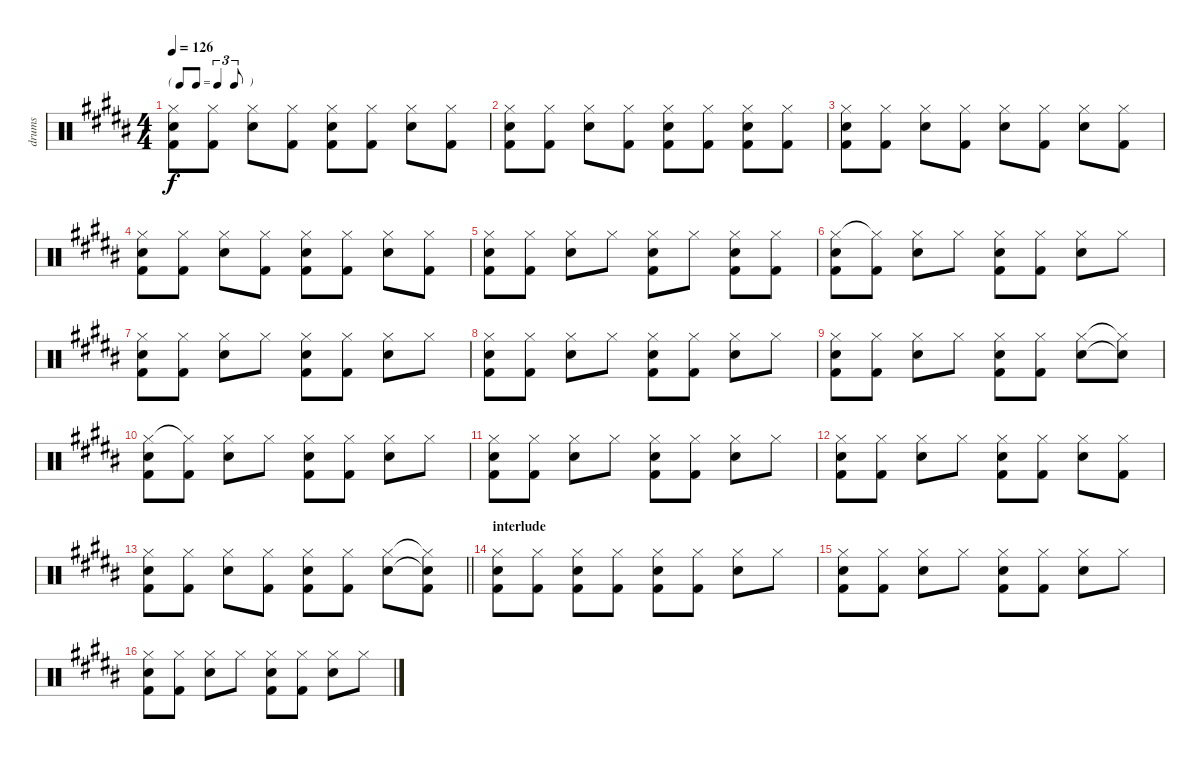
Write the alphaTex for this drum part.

\track ("drums" "drums") {instrument percussion}
\staff {score}
\articulation defaults
\ts (4 4)
\tf triplet8th
\tempo 126
\clef neutral
\ks b
("Hi-Hat (closed)" "Electric Snare (hit)" "Kick (hit) 2").8{dy f} ("Hi-Hat (closed)" "Kick (hit) 2").8 ("Hi-Hat (closed)" "Electric Snare (hit)").8 ("Hi-Hat (closed)" "Kick (hit) 2").8 ("Hi-Hat (closed)" "Electric Snare (hit)" "Kick (hit) 2").8 ("Hi-Hat (closed)" "Kick (hit) 2").8 ("Hi-Hat (closed)" "Electric Snare (hit)").8 ("Hi-Hat (closed)" "Kick (hit) 2").8 |
("Hi-Hat (closed)" "Electric Snare (hit)" "Kick (hit) 2").8{volume 11} ("Hi-Hat (closed)" "Kick (hit) 2").8 ("Hi-Hat (closed)" "Electric Snare (hit)").8 ("Hi-Hat (closed)" "Kick (hit) 2").8 ("Hi-Hat (closed)" "Electric Snare (hit)" "Kick (hit) 2").8 ("Hi-Hat (closed)" "Kick (hit) 2").8 ("Hi-Hat (closed)" "Electric Snare (hit)" "Kick (hit) 2").8 ("Hi-Hat (closed)" "Kick (hit) 2").8 |
("Hi-Hat (closed)" "Electric Snare (hit)" "Kick (hit) 2").8 ("Hi-Hat (closed)" "Kick (hit) 2").8 ("Hi-Hat (closed)" "Electric Snare (hit)").8 ("Hi-Hat (closed)" "Kick (hit) 2").8 ("Hi-Hat (closed)" "Electric Snare (hit)").8 ("Hi-Hat (closed)" "Kick (hit) 2").8 ("Hi-Hat (closed)" "Electric Snare (hit)").8 ("Hi-Hat (closed)" "Kick (hit) 2").8 |
("Hi-Hat (closed)" "Electric Snare (hit)" "Kick (hit) 2").8 ("Hi-Hat (closed)" "Kick (hit) 2").8 ("Hi-Hat (closed)" "Electric Snare (hit)").8 ("Hi-Hat (closed)" "Kick (hit) 2").8 ("Hi-Hat (closed)" "Electric Snare (hit)" "Kick (hit) 2").8 ("Hi-Hat (closed)" "Kick (hit) 2").8 ("Hi-Hat (closed)" "Electric Snare (hit)").8 ("Hi-Hat (closed)" "Kick (hit) 2").8 |
("Hi-Hat (closed)" "Electric Snare (hit)" "Kick (hit) 2").8 ("Hi-Hat (closed)" "Kick (hit) 2").8 ("Hi-Hat (closed)" "Electric Snare (hit)").8 "Hi-Hat (closed)".8 ("Hi-Hat (closed)" "Electric Snare (hit)" "Kick (hit) 2").8 "Hi-Hat (closed)".8 ("Hi-Hat (closed)" "Electric Snare (hit)" "Kick (hit) 2").8 ("Hi-Hat (closed)" "Kick (hit) 2").8 |
("Hi-Hat (closed)" "Electric Snare (hit)" "Kick (hit) 2").8 ("Hi-Hat (closed)"{t} "Kick (hit) 2").8 ("Hi-Hat (closed)" "Electric Snare (hit)").8 "Hi-Hat (closed)".8 ("Hi-Hat (closed)" "Electric Snare (hit)" "Kick (hit) 2").8 ("Hi-Hat (closed)" "Kick (hit) 2").8 ("Hi-Hat (closed)" "Electric Snare (hit)").8 "Hi-Hat (closed)".8 |
("Hi-Hat (closed)" "Electric Snare (hit)" "Kick (hit) 2").8 ("Hi-Hat (closed)" "Kick (hit) 2").8 ("Hi-Hat (closed)" "Electric Snare (hit)").8 "Hi-Hat (closed)".8 ("Hi-Hat (closed)" "Electric Snare (hit)" "Kick (hit) 2").8 ("Hi-Hat (closed)" "Kick (hit) 2").8 ("Hi-Hat (closed)" "Electric Snare (hit)").8 "Hi-Hat (closed)".8 |
("Hi-Hat (closed)" "Electric Snare (hit)" "Kick (hit) 2").8 ("Hi-Hat (closed)" "Kick (hit) 2").8 ("Hi-Hat (closed)" "Electric Snare (hit)").8 "Hi-Hat (closed)".8 ("Hi-Hat (closed)" "Electric Snare (hit)" "Kick (hit) 2").8 ("Hi-Hat (closed)" "Kick (hit) 2").8 ("Hi-Hat (closed)" "Electric Snare (hit)").8 "Hi-Hat (closed)".8 |
("Hi-Hat (closed)" "Electric Snare (hit)" "Kick (hit) 2").8 ("Hi-Hat (closed)" "Kick (hit) 2").8 ("Hi-Hat (closed)" "Electric Snare (hit)").8 "Hi-Hat (closed)".8 ("Hi-Hat (closed)" "Electric Snare (hit)" "Kick (hit) 2").8 ("Hi-Hat (closed)" "Kick (hit) 2").8 ("Hi-Hat (closed)" "Electric Snare (hit)").8 ("Hi-Hat (closed)"{t} "Snare (hit)"{t}).8 |
("Hi-Hat (closed)" "Electric Snare (hit)" "Kick (hit) 2").8 ("Hi-Hat (closed)"{t} "Kick (hit) 2").8 ("Hi-Hat (closed)" "Electric Snare (hit)").8 "Hi-Hat (closed)".8 ("Hi-Hat (closed)" "Electric Snare (hit)" "Kick (hit) 2").8 ("Hi-Hat (closed)" "Kick (hit) 2").8 ("Hi-Hat (closed)" "Electric Snare (hit)").8 "Hi-Hat (closed)".8 |
("Hi-Hat (closed)" "Electric Snare (hit)" "Kick (hit) 2").8 ("Hi-Hat (closed)" "Kick (hit) 2").8 ("Hi-Hat (closed)" "Electric Snare (hit)").8 "Hi-Hat (closed)".8 ("Hi-Hat (closed)" "Electric Snare (hit)" "Kick (hit) 2").8 ("Hi-Hat (closed)" "Kick (hit) 2").8 ("Hi-Hat (closed)" "Electric Snare (hit)").8 "Hi-Hat (closed)".8 |
("Hi-Hat (closed)" "Electric Snare (hit)" "Kick (hit) 2").8 ("Hi-Hat (closed)" "Kick (hit) 2").8 ("Hi-Hat (closed)" "Electric Snare (hit)").8 "Hi-Hat (closed)".8 ("Hi-Hat (closed)" "Electric Snare (hit)" "Kick (hit) 2").8 ("Hi-Hat (closed)" "Kick (hit) 2").8 ("Hi-Hat (closed)" "Electric Snare (hit)").8 ("Hi-Hat (closed)" "Kick (hit) 2").8 |
\barLineRight lightlight
("Hi-Hat (closed)" "Electric Snare (hit)" "Kick (hit) 2").8 ("Hi-Hat (closed)" "Kick (hit) 2").8 ("Hi-Hat (closed)" "Electric Snare (hit)").8 ("Hi-Hat (closed)" "Kick (hit) 2").8 ("Hi-Hat (closed)" "Electric Snare (hit)" "Kick (hit) 2").8 ("Hi-Hat (closed)" "Kick (hit) 2").8 ("Hi-Hat (closed)" "Electric Snare (hit)").8 ("Hi-Hat (closed)"{t} "Snare (hit)"{t} "Kick (hit) 2").8 |
\section ("" "interlude")
("Hi-Hat (closed)" "Electric Snare (hit)" "Kick (hit) 2").8 ("Hi-Hat (closed)" "Kick (hit) 2").8 ("Hi-Hat (closed)" "Electric Snare (hit)" "Kick (hit) 2").8 ("Hi-Hat (closed)" "Kick (hit) 2").8 ("Hi-Hat (closed)" "Electric Snare (hit)" "Kick (hit) 2").8 ("Hi-Hat (closed)" "Kick (hit) 2").8 ("Hi-Hat (closed)" "Electric Snare (hit)").8 "Hi-Hat (closed)".8 |
("Hi-Hat (closed)" "Electric Snare (hit)" "Kick (hit) 2").8 ("Hi-Hat (closed)" "Kick (hit) 2").8 ("Hi-Hat (closed)" "Electric Snare (hit)").8 "Hi-Hat (closed)".8 ("Hi-Hat (closed)" "Electric Snare (hit)" "Kick (hit) 2").8 ("Hi-Hat (closed)" "Kick (hit) 2").8 ("Hi-Hat (closed)" "Electric Snare (hit)").8 "Hi-Hat (closed)".8 |
("Hi-Hat (closed)" "Electric Snare (hit)" "Kick (hit) 2").8 ("Hi-Hat (closed)" "Kick (hit) 2").8 ("Hi-Hat (closed)" "Electric Snare (hit)").8 "Hi-Hat (closed)".8 ("Hi-Hat (closed)" "Electric Snare (hit)" "Kick (hit) 2").8 ("Hi-Hat (closed)" "Kick (hit) 2").8 ("Hi-Hat (closed)" "Electric Snare (hit)").8 "Hi-Hat (closed)".8
